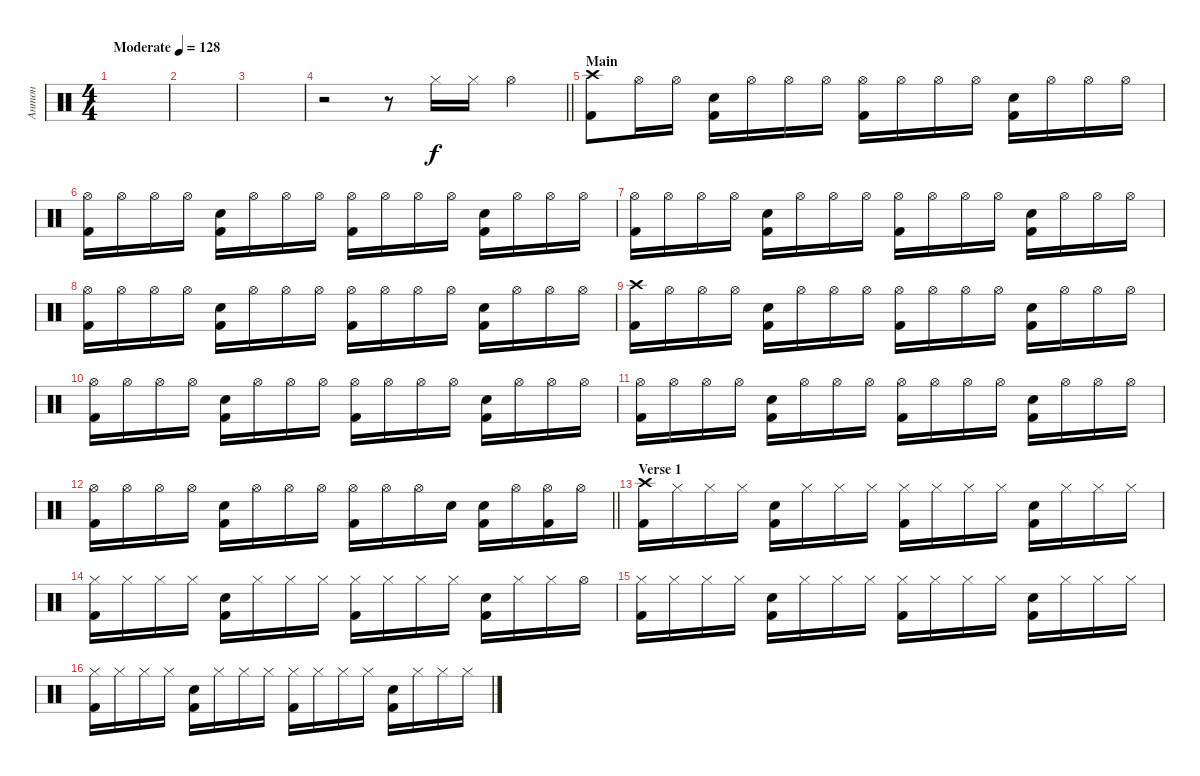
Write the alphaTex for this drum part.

\track ("Антон" "Антон") {instrument percussion}
\staff {score}
\articulation defaults
\ts (4 4)
\tempo (128 "Moderate")
\clef neutral
\ks c
|
|
|
\barLineRight lightlight
r.2 r.8 "Hi-Hat (closed)".16 "Hi-Hat (closed)".16 "Hi-Hat (open)".4 |
\section ("" "Main")
("Crash high (hit)" "Kick (hit) 2").8 "Hi-Hat (open)".16 "Hi-Hat (open)".16 ("Snare (hit) 2" "Kick (hit) 2").16 "Hi-Hat (open)".16 "Hi-Hat (open)".16 "Hi-Hat (open)".16 ("Hi-Hat (open)" "Kick (hit) 2").16 "Hi-Hat (open)".16 "Hi-Hat (open)".16 "Hi-Hat (open)".16 ("Snare (hit) 2" "Kick (hit) 2").16 "Hi-Hat (open)".16 "Hi-Hat (open)".16 "Hi-Hat (open)".16 |
("Hi-Hat (open)" "Kick (hit) 2").16 "Hi-Hat (open)".16 "Hi-Hat (open)".16 "Hi-Hat (open)".16 ("Snare (hit) 2" "Kick (hit) 2").16 "Hi-Hat (open)".16 "Hi-Hat (open)".16 "Hi-Hat (open)".16 ("Hi-Hat (open)" "Kick (hit) 2").16 "Hi-Hat (open)".16 "Hi-Hat (open)".16 "Hi-Hat (open)".16 ("Snare (hit) 2" "Kick (hit) 2").16 "Hi-Hat (open)".16 "Hi-Hat (open)".16 "Hi-Hat (open)".16 |
("Hi-Hat (open)" "Kick (hit) 2").16 "Hi-Hat (open)".16 "Hi-Hat (open)".16 "Hi-Hat (open)".16 ("Snare (hit) 2" "Kick (hit) 2").16 "Hi-Hat (open)".16 "Hi-Hat (open)".16 "Hi-Hat (open)".16 ("Hi-Hat (open)" "Kick (hit) 2").16 "Hi-Hat (open)".16 "Hi-Hat (open)".16 "Hi-Hat (open)".16 ("Snare (hit) 2" "Kick (hit) 2").16 "Hi-Hat (open)".16 "Hi-Hat (open)".16 "Hi-Hat (open)".16 |
("Hi-Hat (open)" "Kick (hit) 2").16 "Hi-Hat (open)".16 "Hi-Hat (open)".16 "Hi-Hat (open)".16 ("Snare (hit) 2" "Kick (hit) 2").16 "Hi-Hat (open)".16 "Hi-Hat (open)".16 "Hi-Hat (open)".16 ("Hi-Hat (open)" "Kick (hit) 2").16 "Hi-Hat (open)".16 "Hi-Hat (open)".16 "Hi-Hat (open)".16 ("Snare (hit) 2" "Kick (hit) 2").16 "Hi-Hat (open)".16 "Hi-Hat (open)".16 "Hi-Hat (open)".16 |
("Crash high (hit)" "Kick (hit) 2").16 "Hi-Hat (open)".16 "Hi-Hat (open)".16 "Hi-Hat (open)".16 ("Snare (hit) 2" "Kick (hit) 2").16 "Hi-Hat (open)".16 "Hi-Hat (open)".16 "Hi-Hat (open)".16 ("Hi-Hat (open)" "Kick (hit) 2").16 "Hi-Hat (open)".16 "Hi-Hat (open)".16 "Hi-Hat (open)".16 ("Snare (hit) 2" "Kick (hit) 2").16 "Hi-Hat (open)".16 "Hi-Hat (open)".16 "Hi-Hat (open)".16 |
("Hi-Hat (open)" "Kick (hit) 2").16 "Hi-Hat (open)".16 "Hi-Hat (open)".16 "Hi-Hat (open)".16 ("Snare (hit) 2" "Kick (hit) 2").16 "Hi-Hat (open)".16 "Hi-Hat (open)".16 "Hi-Hat (open)".16 ("Hi-Hat (open)" "Kick (hit) 2").16 "Hi-Hat (open)".16 "Hi-Hat (open)".16 "Hi-Hat (open)".16 ("Snare (hit) 2" "Kick (hit) 2").16 "Hi-Hat (open)".16 "Hi-Hat (open)".16 "Hi-Hat (open)".16 |
("Hi-Hat (open)" "Kick (hit) 2").16 "Hi-Hat (open)".16 "Hi-Hat (open)".16 "Hi-Hat (open)".16 ("Snare (hit) 2" "Kick (hit) 2").16 "Hi-Hat (open)".16 "Hi-Hat (open)".16 "Hi-Hat (open)".16 ("Hi-Hat (open)" "Kick (hit) 2").16 "Hi-Hat (open)".16 "Hi-Hat (open)".16 "Hi-Hat (open)".16 ("Snare (hit) 2" "Kick (hit) 2").16 "Hi-Hat (open)".16 "Hi-Hat (open)".16 "Hi-Hat (open)".16 |
\barLineRight lightlight
("Hi-Hat (open)" "Kick (hit) 2").16 "Hi-Hat (open)".16 "Hi-Hat (open)".16 "Hi-Hat (open)".16 ("Snare (hit) 2" "Kick (hit) 2").16 "Hi-Hat (open)".16 "Hi-Hat (open)".16 "Hi-Hat (open)".16 ("Hi-Hat (open)" "Kick (hit) 2").16 "Hi-Hat (open)".16 "Hi-Hat (open)".16 "Snare (hit) 2".16 ("Snare (hit) 2" "Kick (hit) 2").16 "Hi-Hat (open)".16 ("Hi-Hat (open)" "Kick (hit) 2").16 "Hi-Hat (open)".16 |
\section ("" "Verse 1")
("Crash high (hit)" "Kick (hit) 2").16 "Hi-Hat (closed)".16 "Hi-Hat (closed)".16 "Hi-Hat (closed)".16 ("Snare (hit) 2" "Kick (hit) 2").16 "Hi-Hat (closed)".16 "Hi-Hat (closed)".16 "Hi-Hat (closed)".16 ("Hi-Hat (closed)" "Kick (hit) 2").16 "Hi-Hat (closed)".16 "Hi-Hat (closed)".16 "Hi-Hat (closed)".16 ("Snare (hit) 2" "Kick (hit) 2").16 "Hi-Hat (closed)".16 "Hi-Hat (closed)".16 "Hi-Hat (closed)".16 |
("Hi-Hat (closed)" "Kick (hit) 2").16 "Hi-Hat (closed)".16 "Hi-Hat (closed)".16 "Hi-Hat (closed)".16 ("Snare (hit) 2" "Kick (hit) 2").16 "Hi-Hat (closed)".16 "Hi-Hat (closed)".16 "Hi-Hat (closed)".16 ("Hi-Hat (closed)" "Kick (hit) 2").16 "Hi-Hat (closed)".16 "Hi-Hat (closed)".16 "Hi-Hat (closed)".16 ("Snare (hit) 2" "Kick (hit) 2").16 "Hi-Hat (closed)".16 "Hi-Hat (closed)".16 "Hi-Hat (open)".16 |
("Hi-Hat (closed)" "Kick (hit) 2").16 "Hi-Hat (closed)".16 "Hi-Hat (closed)".16 "Hi-Hat (closed)".16 ("Snare (hit) 2" "Kick (hit) 2").16 "Hi-Hat (closed)".16 "Hi-Hat (closed)".16 "Hi-Hat (closed)".16 ("Hi-Hat (closed)" "Kick (hit) 2").16 "Hi-Hat (closed)".16 "Hi-Hat (closed)".16 "Hi-Hat (closed)".16 ("Snare (hit) 2" "Kick (hit) 2").16 "Hi-Hat (closed)".16 "Hi-Hat (closed)".16 "Hi-Hat (closed)".16 |
("Hi-Hat (closed)" "Kick (hit) 2").16 "Hi-Hat (closed)".16 "Hi-Hat (closed)".16 "Hi-Hat (closed)".16 ("Snare (hit) 2" "Kick (hit) 2").16 "Hi-Hat (closed)".16 "Hi-Hat (closed)".16 "Hi-Hat (closed)".16 ("Hi-Hat (closed)" "Kick (hit) 2").16 "Hi-Hat (closed)".16 "Hi-Hat (closed)".16 "Hi-Hat (closed)".16 ("Snare (hit) 2" "Kick (hit) 2").16 "Hi-Hat (closed)".16 "Hi-Hat (closed)".16 "Hi-Hat (closed)".16
